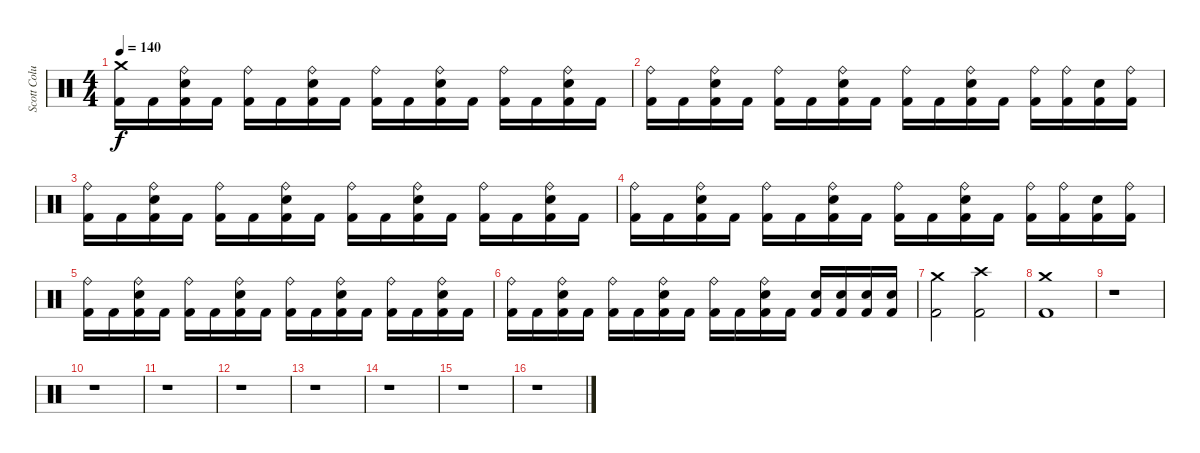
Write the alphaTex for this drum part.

\track ("Scott Columbus(Drums)" "Scott Colu") {instrument percussion}
\staff {score}
\articulation defaults
\ts (4 4)
\tempo 140
\clef neutral
\ks c
("Crash medium (hit)" "Kick (hit) 2").16{dy f} "Kick (hit) 2".16 ("Ride (bell)" "Snare (hit) 2" "Kick (hit) 2").16 "Kick (hit) 2".16 ("Ride (bell)" "Kick (hit) 2").16 "Kick (hit) 2".16 ("Ride (bell)" "Snare (hit) 2" "Kick (hit) 2").16 "Kick (hit) 2".16 ("Ride (bell)" "Kick (hit) 2").16 "Kick (hit) 2".16 ("Ride (bell)" "Snare (hit) 2" "Kick (hit) 2").16 "Kick (hit) 2".16 ("Ride (bell)" "Kick (hit) 2").16 "Kick (hit) 2".16 ("Ride (bell)" "Snare (hit) 2" "Kick (hit) 2").16 "Kick (hit) 2".16 |
("Ride (bell)" "Kick (hit) 2").16 "Kick (hit) 2".16 ("Ride (bell)" "Snare (hit) 2" "Kick (hit) 2").16 "Kick (hit) 2".16 ("Ride (bell)" "Kick (hit) 2").16 "Kick (hit) 2".16 ("Ride (bell)" "Snare (hit) 2" "Kick (hit) 2").16 "Kick (hit) 2".16 ("Ride (bell)" "Kick (hit) 2").16 "Kick (hit) 2".16 ("Ride (bell)" "Snare (hit) 2" "Kick (hit) 2").16 "Kick (hit) 2".16 ("Ride (bell)" "Kick (hit) 2").16 ("Ride (bell)" "Kick (hit) 2").16 ("Snare (hit) 2" "Kick (hit) 2").16 ("Ride (bell)" "Kick (hit) 2").16 |
("Ride (bell)" "Kick (hit) 2").16 "Kick (hit) 2".16 ("Ride (bell)" "Snare (hit) 2" "Kick (hit) 2").16 "Kick (hit) 2".16 ("Ride (bell)" "Kick (hit) 2").16 "Kick (hit) 2".16 ("Ride (bell)" "Snare (hit) 2" "Kick (hit) 2").16 "Kick (hit) 2".16 ("Ride (bell)" "Kick (hit) 2").16 "Kick (hit) 2".16 ("Ride (bell)" "Snare (hit) 2" "Kick (hit) 2").16 "Kick (hit) 2".16 ("Ride (bell)" "Kick (hit) 2").16 "Kick (hit) 2".16 ("Ride (bell)" "Snare (hit) 2" "Kick (hit) 2").16 "Kick (hit) 2".16 |
("Ride (bell)" "Kick (hit) 2").16 "Kick (hit) 2".16 ("Ride (bell)" "Snare (hit) 2" "Kick (hit) 2").16 "Kick (hit) 2".16 ("Ride (bell)" "Kick (hit) 2").16 "Kick (hit) 2".16 ("Ride (bell)" "Snare (hit) 2" "Kick (hit) 2").16 "Kick (hit) 2".16 ("Ride (bell)" "Kick (hit) 2").16 "Kick (hit) 2".16 ("Ride (bell)" "Snare (hit) 2" "Kick (hit) 2").16 "Kick (hit) 2".16 ("Ride (bell)" "Kick (hit) 2").16 ("Ride (bell)" "Kick (hit) 2").16 ("Snare (hit) 2" "Kick (hit) 2").16 ("Ride (bell)" "Kick (hit) 2").16 |
("Ride (bell)" "Kick (hit) 2").16 "Kick (hit) 2".16 ("Ride (bell)" "Snare (hit) 2" "Kick (hit) 2").16 "Kick (hit) 2".16 ("Ride (bell)" "Kick (hit) 2").16 "Kick (hit) 2".16 ("Ride (bell)" "Snare (hit) 2" "Kick (hit) 2").16 "Kick (hit) 2".16 ("Ride (bell)" "Kick (hit) 2").16 "Kick (hit) 2".16 ("Ride (bell)" "Snare (hit) 2" "Kick (hit) 2").16 "Kick (hit) 2".16 ("Ride (bell)" "Kick (hit) 2").16 "Kick (hit) 2".16 ("Ride (bell)" "Snare (hit) 2" "Kick (hit) 2").16 "Kick (hit) 2".16 |
("Ride (bell)" "Kick (hit) 2").16 "Kick (hit) 2".16 ("Ride (bell)" "Snare (hit) 2" "Kick (hit) 2").16 "Kick (hit) 2".16 ("Ride (bell)" "Kick (hit) 2").16 "Kick (hit) 2".16 ("Ride (bell)" "Snare (hit) 2" "Kick (hit) 2").16 "Kick (hit) 2".16 ("Ride (bell)" "Kick (hit) 2").16 "Kick (hit) 2".16 ("Ride (bell)" "Snare (hit) 2" "Kick (hit) 2").16 "Kick (hit) 2".16 ("Snare (hit) 2" "Kick (hit) 2").16 ("Snare (hit) 2" "Kick (hit) 2").16 ("Snare (hit) 2" "Kick (hit) 2").16 ("Snare (hit) 2" "Kick (hit) 2").16 |
("Crash medium (hit)" "Kick (hit) 2").2 ("Crash high (hit)" "Kick (hit) 2").2 |
("Crash medium (hit)" "Kick (hit) 2").1 |
r.1 |
r.1 |
r.1 |
r.1 |
r.1 |
r.1 |
r.1 |
r.1
